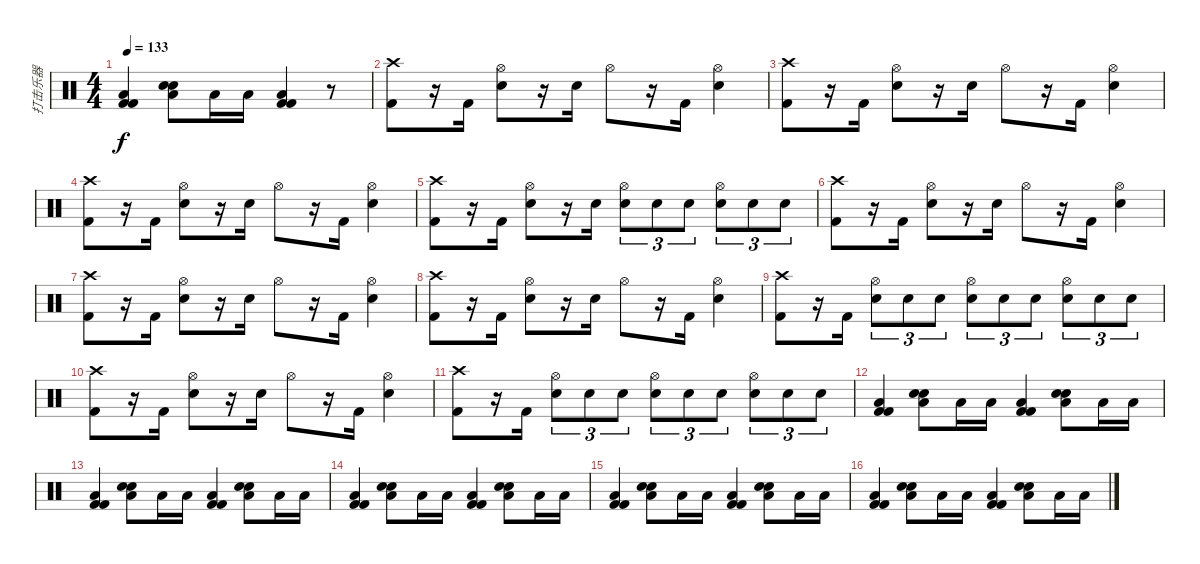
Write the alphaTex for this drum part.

\track ("打击乐器" "打击乐器") {instrument percussion}
\staff {score}
\articulation defaults
\ts (4 4)
\tempo 133
\clef neutral
\ks c
("Low Tom (hit)" "Kick (hit) 2" "Kick (hit) 2").4{dy f} ("Low Tom (hit)" "Electric Snare (hit)" "Electric Snare (hit)").8 "Low Tom (hit)".16 "Low Tom (hit)".16 ("Low Tom (hit)" "Kick (hit) 2" "Kick (hit) 2").4 r.8 |
("Crash high (hit)" "Kick (hit) 2").8 r.16 "Kick (hit) 2".16 ("Hi-Hat (open)" "Electric Snare (hit)").8 r.16 "Electric Snare (hit)".16 "Hi-Hat (open)".8 r.16 "Kick (hit) 2".16 ("Hi-Hat (open)" "Electric Snare (hit)").4 |
("Crash high (hit)" "Kick (hit) 2").8 r.16 "Kick (hit) 2".16 ("Hi-Hat (open)" "Electric Snare (hit)").8 r.16 "Electric Snare (hit)".16 "Hi-Hat (open)".8 r.16 "Kick (hit) 2".16 ("Hi-Hat (open)" "Electric Snare (hit)").4 |
("Crash high (hit)" "Kick (hit) 2").8 r.16 "Kick (hit) 2".16 ("Hi-Hat (open)" "Electric Snare (hit)").8 r.16 "Electric Snare (hit)".16 "Hi-Hat (open)".8 r.16 "Kick (hit) 2".16 ("Hi-Hat (open)" "Electric Snare (hit)").4 |
("Crash high (hit)" "Kick (hit) 2").8 r.16 "Kick (hit) 2".16 ("Hi-Hat (open)" "Electric Snare (hit)").8 r.16 "Electric Snare (hit)".16 ("Hi-Hat (open)" "Electric Snare (hit)").8{tu (3 2)} "Electric Snare (hit)".8{tu (3 2)} "Electric Snare (hit)".8{tu (3 2)} ("Hi-Hat (open)" "Electric Snare (hit)").8{tu (3 2)} "Electric Snare (hit)".8{tu (3 2)} "Electric Snare (hit)".8{tu (3 2)} |
("Crash high (hit)" "Kick (hit) 2").8 r.16 "Kick (hit) 2".16 ("Hi-Hat (open)" "Electric Snare (hit)").8 r.16 "Electric Snare (hit)".16 "Hi-Hat (open)".8 r.16 "Kick (hit) 2".16 ("Hi-Hat (open)" "Electric Snare (hit)").4 |
("Crash high (hit)" "Kick (hit) 2").8 r.16 "Kick (hit) 2".16 ("Hi-Hat (open)" "Electric Snare (hit)").8 r.16 "Electric Snare (hit)".16 "Hi-Hat (open)".8 r.16 "Kick (hit) 2".16 ("Hi-Hat (open)" "Electric Snare (hit)").4 |
("Crash high (hit)" "Kick (hit) 2").8 r.16 "Kick (hit) 2".16 ("Hi-Hat (open)" "Electric Snare (hit)").8 r.16 "Electric Snare (hit)".16 "Hi-Hat (open)".8 r.16 "Kick (hit) 2".16 ("Hi-Hat (open)" "Electric Snare (hit)").4 |
("Crash high (hit)" "Kick (hit) 2").8 r.16 "Kick (hit) 2".16 ("Hi-Hat (open)" "Electric Snare (hit)").8{tu (3 2)} "Electric Snare (hit)".8{tu (3 2)} "Electric Snare (hit)".8{tu (3 2)} ("Hi-Hat (open)" "Electric Snare (hit)").8{tu (3 2)} "Electric Snare (hit)".8{tu (3 2)} "Electric Snare (hit)".8{tu (3 2)} ("Hi-Hat (open)" "Electric Snare (hit)").8{tu (3 2)} "Electric Snare (hit)".8{tu (3 2)} "Electric Snare (hit)".8{tu (3 2)} |
("Crash high (hit)" "Kick (hit) 2").8 r.16 "Kick (hit) 2".16 ("Hi-Hat (open)" "Electric Snare (hit)").8 r.16 "Electric Snare (hit)".16 "Hi-Hat (open)".8 r.16 "Kick (hit) 2".16 ("Hi-Hat (open)" "Electric Snare (hit)").4 |
("Crash high (hit)" "Kick (hit) 2").8 r.16 "Kick (hit) 2".16 ("Hi-Hat (open)" "Electric Snare (hit)").8{tu (3 2)} "Electric Snare (hit)".8{tu (3 2)} "Electric Snare (hit)".8{tu (3 2)} ("Hi-Hat (open)" "Electric Snare (hit)").8{tu (3 2)} "Electric Snare (hit)".8{tu (3 2)} "Electric Snare (hit)".8{tu (3 2)} ("Hi-Hat (open)" "Electric Snare (hit)").8{tu (3 2)} "Electric Snare (hit)".8{tu (3 2)} "Electric Snare (hit)".8{tu (3 2)} |
("Low Tom (hit)" "Kick (hit) 2" "Kick (hit) 2").4 ("Low Tom (hit)" "Electric Snare (hit)" "Electric Snare (hit)").8 "Low Tom (hit)".16 "Low Tom (hit)".16 ("Low Tom (hit)" "Kick (hit) 2" "Kick (hit) 2").4 ("Low Tom (hit)" "Electric Snare (hit)" "Electric Snare (hit)").8 "Low Tom (hit)".16 "Low Tom (hit)".16 |
("Low Tom (hit)" "Kick (hit) 2" "Kick (hit) 2").4 ("Low Tom (hit)" "Electric Snare (hit)" "Electric Snare (hit)").8 "Low Tom (hit)".16 "Low Tom (hit)".16 ("Low Tom (hit)" "Kick (hit) 2" "Kick (hit) 2").4 ("Low Tom (hit)" "Electric Snare (hit)" "Electric Snare (hit)").8 "Low Tom (hit)".16 "Low Tom (hit)".16 |
("Low Tom (hit)" "Kick (hit) 2" "Kick (hit) 2").4 ("Low Tom (hit)" "Electric Snare (hit)" "Electric Snare (hit)").8 "Low Tom (hit)".16 "Low Tom (hit)".16 ("Low Tom (hit)" "Kick (hit) 2" "Kick (hit) 2").4 ("Low Tom (hit)" "Electric Snare (hit)" "Electric Snare (hit)").8 "Low Tom (hit)".16 "Low Tom (hit)".16 |
("Low Tom (hit)" "Kick (hit) 2" "Kick (hit) 2").4 ("Low Tom (hit)" "Electric Snare (hit)" "Electric Snare (hit)").8 "Low Tom (hit)".16 "Low Tom (hit)".16 ("Low Tom (hit)" "Kick (hit) 2" "Kick (hit) 2").4 ("Low Tom (hit)" "Electric Snare (hit)" "Electric Snare (hit)").8 "Low Tom (hit)".16 "Low Tom (hit)".16 |
("Low Tom (hit)" "Kick (hit) 2" "Kick (hit) 2").4 ("Low Tom (hit)" "Electric Snare (hit)" "Electric Snare (hit)").8 "Low Tom (hit)".16 "Low Tom (hit)".16 ("Low Tom (hit)" "Kick (hit) 2" "Kick (hit) 2").4 ("Low Tom (hit)" "Electric Snare (hit)" "Electric Snare (hit)").8 "Low Tom (hit)".16 "Low Tom (hit)".16
